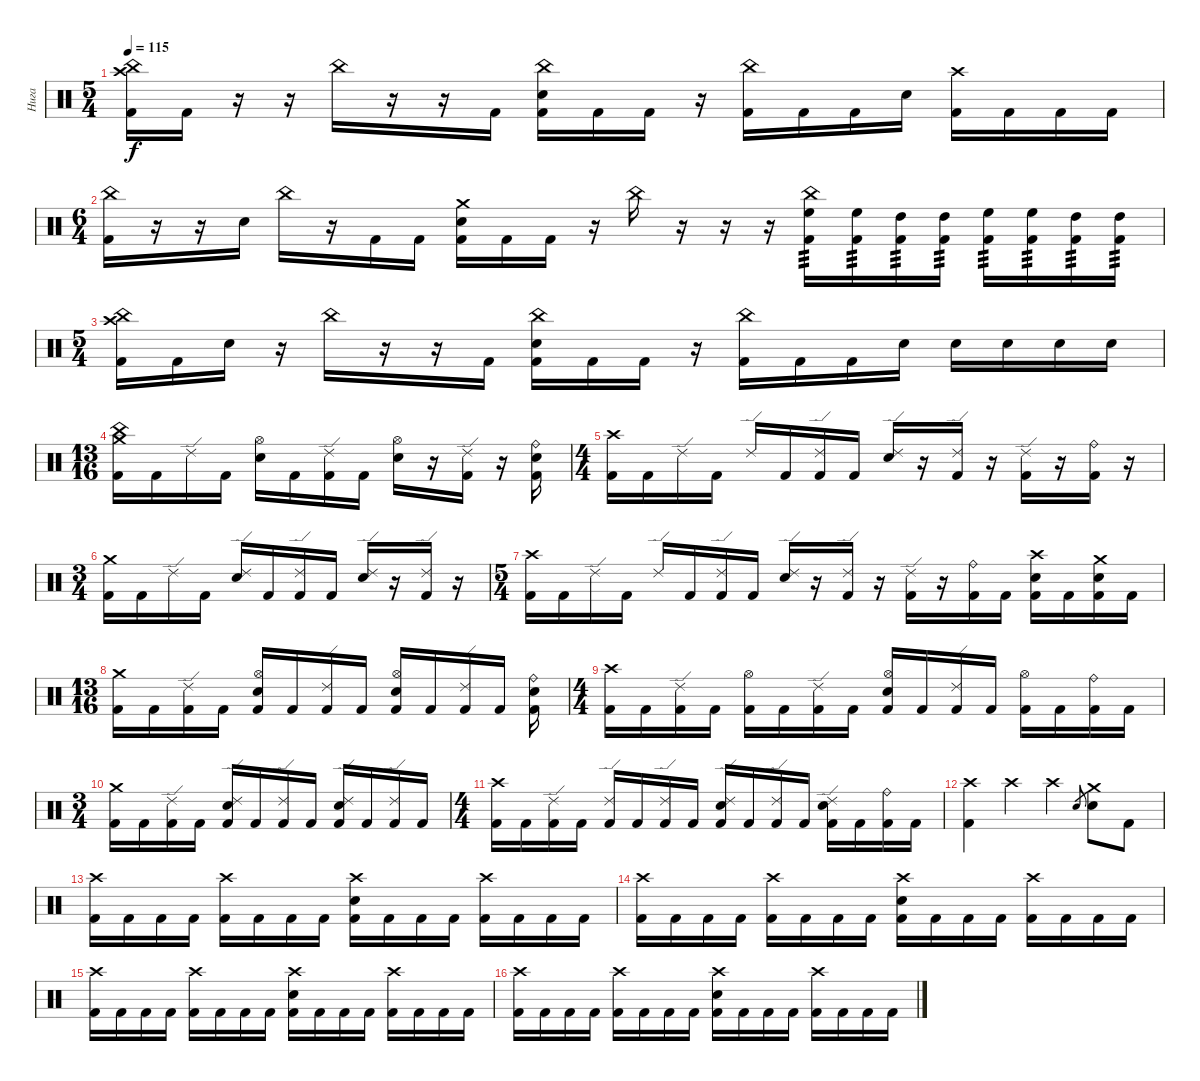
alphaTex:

\track ("Нига" "Нига") {instrument percussion}
\staff {score}
\articulation defaults
\ts (5 4)
\tempo 115
\clef neutral
\ks c
("China (hit)" "Crash high (hit)" "Kick (hit) 2").16{dy f} "Kick (hit) 2".16 r.16 r.16 "China (hit)".16 r.16 r.16 "Kick (hit) 2".16 ("China (hit)" "Electric Snare (hit)" "Kick (hit) 2").16 "Kick (hit) 2".16 "Kick (hit) 2".16 r.16 ("China (hit)" "Kick (hit) 2").16 "Kick (hit) 2".16 "Kick (hit) 2".16 "Electric Snare (hit)".16 ("Crash high (hit)" "Kick (hit) 2").16 "Kick (hit) 2".16 "Kick (hit) 2".16 "Kick (hit) 2".16 |
\ts (6 4)
("China (hit)" "Kick (hit) 2").16 r.16 r.16 "Electric Snare (hit)".16 "China (hit)".16 r.16 "Kick (hit) 2".16 "Kick (hit) 2".16 ("Crash medium (hit)" "Electric Snare (hit)" "Kick (hit) 2").16 "Kick (hit) 2".16 "Kick (hit) 2".16 r.16 "China (hit)".16 r.16 r.16 r.16 ("Kick (hit) 2" "China (hit)" "High Floor Tom (hit)").16{tp 3} ("Kick (hit) 2" "High Floor Tom (hit)").16{tp 3} ("Kick (hit) 2" "High Tom (hit)").16{tp 3} ("Kick (hit) 2" "High Tom (hit)").16{tp 3} ("Kick (hit) 2" "High Floor Tom (hit)").16{tp 3} ("Kick (hit) 2" "High Floor Tom (hit)").16{tp 3} ("Kick (hit) 2" "High Tom (hit)").16{tp 3} ("Kick (hit) 2" "High Tom (hit)").16{tp 3} |
\ts (5 4)
("China (hit)" "Crash high (hit)" "Kick (hit) 2").16 "Kick (hit) 2".16 "Electric Snare (hit)".16 r.16 "China (hit)".16 r.16 r.16 "Kick (hit) 2".16 ("China (hit)" "Electric Snare (hit)" "Kick (hit) 2").16 "Kick (hit) 2".16 "Kick (hit) 2".16 r.16 ("China (hit)" "Kick (hit) 2").16 "Kick (hit) 2".16 "Kick (hit) 2".16 "Electric Snare (hit)".16 "Electric Snare (hit)".16 "Electric Snare (hit)".16 "Electric Snare (hit)".16 "Electric Snare (hit)".16 |
\ts (13 16)
("Crash medium (hit)" "China (hit)" "Kick (hit) 2").16 "Kick (hit) 2".16 "Ride (edge) 2".16 "Kick (hit) 2".16 ("Hi-Hat (open)" "Snare (hit) 2").16 "Kick (hit) 2".16 ("Ride (edge) 2" "Kick (hit) 2").16 "Kick (hit) 2".16 ("Hi-Hat (open)" "Snare (hit) 2").16 r.16 ("Ride (edge) 2" "Kick (hit) 2").16 r.16 ("Ride (bell)" "Snare (hit) 2" "Kick (hit) 2").16 |
\ts (4 4)
("Crash high (hit)" "Kick (hit) 2").16 "Kick (hit) 2".16 "Ride (edge) 2".16 "Kick (hit) 2".16 "Ride (edge) 2".16 "Kick (hit) 2".16 ("Ride (edge) 2" "Kick (hit) 2").16 "Kick (hit) 2".16 ("Ride (edge) 2" "Snare (hit) 2").16 r.16 ("Ride (edge) 2" "Kick (hit) 2").16 r.16 ("Ride (edge) 2" "Kick (hit) 2").16 r.16 ("Ride (bell)" "Kick (hit) 2").16 r.16 |
\ts (3 4)
("Crash medium (hit)" "Kick (hit) 2").16 "Kick (hit) 2".16 "Ride (edge) 2".16 "Kick (hit) 2".16 ("Ride (edge) 2" "Snare (hit) 2").16 "Kick (hit) 2".16 ("Ride (edge) 2" "Kick (hit) 2").16 "Kick (hit) 2".16 ("Ride (edge) 2" "Snare (hit) 2").16 r.16 ("Ride (edge) 2" "Kick (hit) 2").16 r.16 |
\ts (5 4)
("Crash high (hit)" "Kick (hit) 2").16 "Kick (hit) 2".16 "Ride (edge) 2".16 "Kick (hit) 2".16 "Ride (edge) 2".16 "Kick (hit) 2".16 ("Ride (edge) 2" "Kick (hit) 2").16 "Kick (hit) 2".16 ("Ride (edge) 2" "Snare (hit) 2").16 r.16 ("Ride (edge) 2" "Kick (hit) 2").16 r.16 ("Ride (edge) 2" "Kick (hit) 2").16 r.16 ("Ride (bell)" "Kick (hit) 2").16 "Kick (hit) 2".16 ("Crash high (hit)" "Snare (hit) 2" "Kick (hit) 2").16 "Kick (hit) 2".16 ("Crash medium (hit)" "Snare (hit) 2" "Kick (hit) 2").16 "Kick (hit) 2".16 |
\ts (13 16)
("Crash medium (hit)" "Kick (hit) 2").16 "Kick (hit) 2".16 ("Ride (edge) 2" "Kick (hit) 2").16 "Kick (hit) 2".16 ("Hi-Hat (open)" "Snare (hit) 2" "Kick (hit) 2").16 "Kick (hit) 2".16 ("Ride (edge) 2" "Kick (hit) 2").16 "Kick (hit) 2".16 ("Hi-Hat (open)" "Snare (hit) 2" "Kick (hit) 2").16 "Kick (hit) 2".16 ("Ride (edge) 2" "Kick (hit) 2").16 "Kick (hit) 2".16 ("Ride (bell)" "Snare (hit) 2" "Kick (hit) 2").16 |
\ts (4 4)
("Crash high (hit)" "Kick (hit) 2").16 "Kick (hit) 2".16 ("Ride (edge) 2" "Kick (hit) 2").16 "Kick (hit) 2".16 ("Hi-Hat (open)" "Kick (hit) 2").16 "Kick (hit) 2".16 ("Ride (edge) 2" "Kick (hit) 2").16 "Kick (hit) 2".16 ("Hi-Hat (open)" "Snare (hit) 2" "Kick (hit) 2").16 "Kick (hit) 2".16 ("Ride (edge) 2" "Kick (hit) 2").16 "Kick (hit) 2".16 ("Hi-Hat (open)" "Kick (hit) 2").16 "Kick (hit) 2".16 ("Ride (bell)" "Kick (hit) 2").16 "Kick (hit) 2".16 |
\ts (3 4)
("Crash medium (hit)" "Kick (hit) 2").16 "Kick (hit) 2".16 ("Ride (edge) 2" "Kick (hit) 2").16 "Kick (hit) 2".16 ("Ride (edge) 2" "Snare (hit) 2" "Kick (hit) 2").16 "Kick (hit) 2".16 ("Ride (edge) 2" "Kick (hit) 2").16 "Kick (hit) 2".16 ("Ride (edge) 2" "Snare (hit) 2" "Kick (hit) 2").16 "Kick (hit) 2".16 ("Ride (edge) 2" "Kick (hit) 2").16 "Kick (hit) 2".16 |
\ts (4 4)
("Crash high (hit)" "Kick (hit) 2").16 "Kick (hit) 2".16 ("Ride (edge) 2" "Kick (hit) 2").16 "Kick (hit) 2".16 ("Ride (edge) 2" "Kick (hit) 2").16 "Kick (hit) 2".16 ("Ride (edge) 2" "Kick (hit) 2").16 "Kick (hit) 2".16 ("Ride (edge) 2" "Snare (hit) 2" "Kick (hit) 2").16 "Kick (hit) 2".16 ("Ride (edge) 2" "Kick (hit) 2").16 "Kick (hit) 2".16 ("Ride (edge) 2" "Snare (hit) 2" "Kick (hit) 2").16 "Kick (hit) 2".16 ("Ride (bell)" "Kick (hit) 2").16 "Kick (hit) 2".16 |
("Crash high (hit)" "Kick (hit) 2").4 "Crash high (hit)".4 "Crash high (hit)".4 "Electric Snare (hit)".8{gr} ("Crash medium (hit)" "Electric Snare (hit)").8 "Kick (hit) 2".8 |
("Crash high (hit)" "Kick (hit) 2").16 "Kick (hit) 2".16 "Kick (hit) 2".16 "Kick (hit) 2".16 ("Crash high (hit)" "Kick (hit) 2").16 "Kick (hit) 2".16 "Kick (hit) 2".16 "Kick (hit) 2".16 ("Crash high (hit)" "Electric Snare (hit)" "Kick (hit) 2").16 "Kick (hit) 2".16 "Kick (hit) 2".16 "Kick (hit) 2".16 ("Crash high (hit)" "Kick (hit) 2").16 "Kick (hit) 2".16 "Kick (hit) 2".16 "Kick (hit) 2".16 |
("Crash high (hit)" "Kick (hit) 2").16 "Kick (hit) 2".16 "Kick (hit) 2".16 "Kick (hit) 2".16 ("Crash high (hit)" "Kick (hit) 2").16 "Kick (hit) 2".16 "Kick (hit) 2".16 "Kick (hit) 2".16 ("Crash high (hit)" "Electric Snare (hit)" "Kick (hit) 2").16 "Kick (hit) 2".16 "Kick (hit) 2".16 "Kick (hit) 2".16 ("Crash high (hit)" "Kick (hit) 2").16 "Kick (hit) 2".16 "Kick (hit) 2".16 "Kick (hit) 2".16 |
("Crash high (hit)" "Kick (hit) 2").16 "Kick (hit) 2".16 "Kick (hit) 2".16 "Kick (hit) 2".16 ("Crash high (hit)" "Kick (hit) 2").16 "Kick (hit) 2".16 "Kick (hit) 2".16 "Kick (hit) 2".16 ("Crash high (hit)" "Electric Snare (hit)" "Kick (hit) 2").16 "Kick (hit) 2".16 "Kick (hit) 2".16 "Kick (hit) 2".16 ("Crash high (hit)" "Kick (hit) 2").16 "Kick (hit) 2".16 "Kick (hit) 2".16 "Kick (hit) 2".16 |
("Crash high (hit)" "Kick (hit) 2").16 "Kick (hit) 2".16 "Kick (hit) 2".16 "Kick (hit) 2".16 ("Crash high (hit)" "Kick (hit) 2").16 "Kick (hit) 2".16 "Kick (hit) 2".16 "Kick (hit) 2".16 ("Crash high (hit)" "Electric Snare (hit)" "Kick (hit) 2").16 "Kick (hit) 2".16 "Kick (hit) 2".16 "Kick (hit) 2".16 ("Crash high (hit)" "Kick (hit) 2").16 "Kick (hit) 2".16 "Kick (hit) 2".16 "Kick (hit) 2".16
